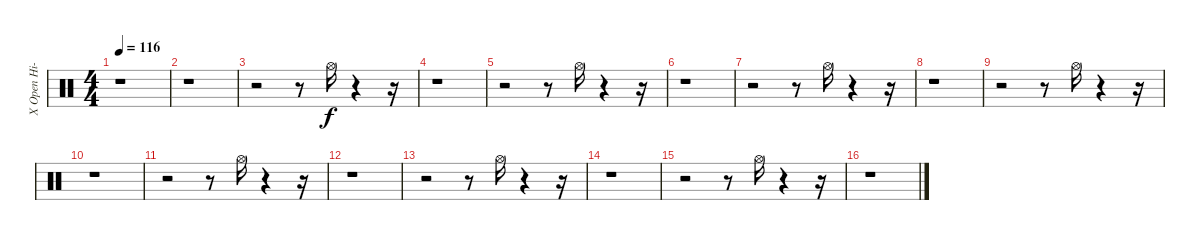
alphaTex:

\track ("X Open Hi-Hat       " "X Open Hi-") {instrument percussion}
\staff {score}
\articulation defaults
\ts (4 4)
\tempo 116
\clef neutral
\ks c
r.1{dy f} |
r.1 |
r.2 r.8 "Hi-Hat (open)".16 r.4 r.16 |
r.1 |
r.2 r.8 "Hi-Hat (open)".16 r.4 r.16 |
r.1 |
r.2 r.8 "Hi-Hat (open)".16 r.4 r.16 |
r.1 |
r.2 r.8 "Hi-Hat (open)".16 r.4 r.16 |
r.1 |
r.2 r.8 "Hi-Hat (open)".16 r.4 r.16 |
r.1 |
r.2 r.8 "Hi-Hat (open)".16 r.4 r.16 |
r.1 |
r.2 r.8 "Hi-Hat (open)".16 r.4 r.16 |
r.1
